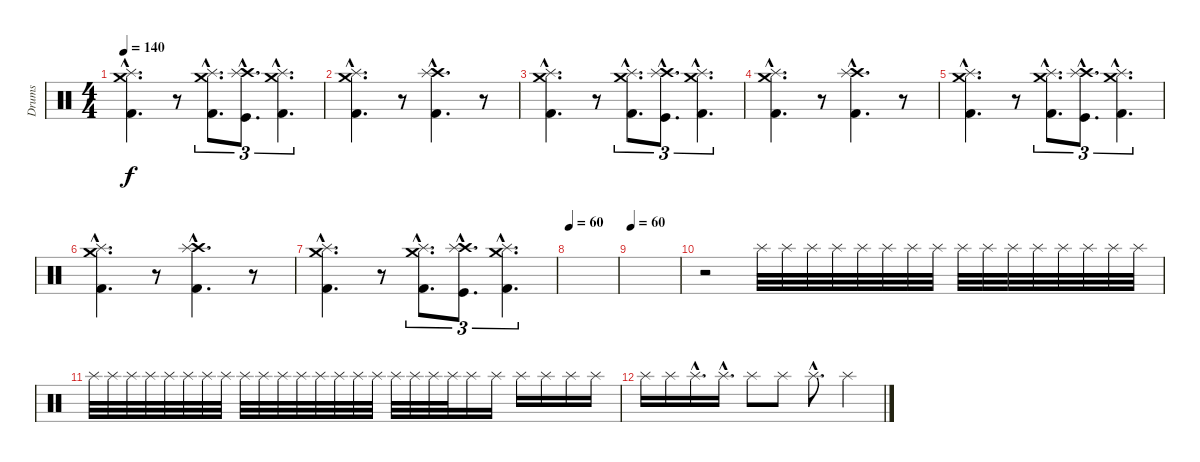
\track ("Drums" "Drums") {instrument percussion}
\staff {score}
\articulation defaults
\ts (4 4)
\tempo 140
\clef neutral
\ks c
("Crash medium (hit)"{hac} "Splash (hit)"{hac} "Kick (hit) 2"{hac}).4{d dy f} r.8 ("Crash medium (hit)"{hac} "Splash (hit)"{hac} "Kick (hit) 2"{hac}).8{d tu (3 2)} ("Crash high (hit)"{hac} "Splash (hit)"{hac} "Kick (hit)"{hac}).8{d tu (3 2)} ("Crash medium (hit)"{hac} "Splash (hit)"{hac} "Kick (hit) 2"{hac}).4{d tu (3 2)} |
("Crash medium (hit)"{hac} "Splash (hit)"{hac} "Kick (hit) 2"{hac}).4{d} r.8 ("Crash high (hit)"{hac} "Splash (hit)"{hac} "Kick (hit) 2"{hac}).4{d} r.8 |
("Crash medium (hit)"{hac} "Splash (hit)"{hac} "Kick (hit) 2"{hac}).4{d} r.8 ("Crash medium (hit)"{hac} "Splash (hit)"{hac} "Kick (hit) 2"{hac}).8{d tu (3 2)} ("Crash high (hit)"{hac} "Splash (hit)"{hac} "Kick (hit)"{hac}).8{d tu (3 2)} ("Crash medium (hit)"{hac} "Splash (hit)"{hac} "Kick (hit) 2"{hac}).4{d tu (3 2)} |
("Crash medium (hit)"{hac} "Splash (hit)"{hac} "Kick (hit) 2"{hac}).4{d} r.8 ("Crash high (hit)"{hac} "Splash (hit)"{hac} "Kick (hit) 2"{hac}).4{d} r.8 |
("Crash medium (hit)"{hac} "Splash (hit)"{hac} "Kick (hit) 2"{hac}).4{d} r.8 ("Crash medium (hit)"{hac} "Splash (hit)"{hac} "Kick (hit) 2"{hac}).8{d tu (3 2)} ("Crash high (hit)"{hac} "Splash (hit)"{hac} "Kick (hit)"{hac}).8{d tu (3 2)} ("Crash medium (hit)"{hac} "Splash (hit)"{hac} "Kick (hit) 2"{hac}).4{d tu (3 2)} |
("Crash medium (hit)"{hac} "Splash (hit)"{hac} "Kick (hit) 2"{hac}).4{d} r.8 ("Crash high (hit)"{hac} "Splash (hit)"{hac} "Kick (hit) 2"{hac}).4{d} r.8 |
("Crash medium (hit)"{hac} "Splash (hit)"{hac} "Kick (hit) 2"{hac}).4{d} r.8 ("Crash medium (hit)"{hac} "Splash (hit)"{hac} "Kick (hit) 2"{hac}).8{d tu (3 2)} ("Crash high (hit)"{hac} "Splash (hit)"{hac} "Kick (hit)"{hac}).8{d tu (3 2)} ("Crash medium (hit)"{hac} "Splash (hit)"{hac} "Kick (hit) 2"{hac}).4{d tu (3 2)} |
\tempo 60
|
\tempo 60
|
r.2 "Splash (hit)".32 "Splash (hit)".32 "Splash (hit)".32 "Splash (hit)".32 "Splash (hit)".32 "Splash (hit)".32 "Splash (hit)".32 "Splash (hit)".32 "Splash (hit)".32 "Splash (hit)".32 "Splash (hit)".32 "Splash (hit)".32 "Splash (hit)".32 "Splash (hit)".32 "Splash (hit)".32 "Splash (hit)".32 |
"Splash (hit)".32 "Splash (hit)".32 "Splash (hit)".32 "Splash (hit)".32 "Splash (hit)".32 "Splash (hit)".32 "Splash (hit)".32 "Splash (hit)".32 "Splash (hit)".32 "Splash (hit)".32 "Splash (hit)".32 "Splash (hit)".32 "Splash (hit)".32 "Splash (hit)".32 "Splash (hit)".32 "Splash (hit)".32 "Splash (hit)".32 "Splash (hit)".32 "Splash (hit)".32 "Splash (hit)".32 "Splash (hit)".16 "Splash (hit)".16 "Splash (hit)".16 "Splash (hit)".16 "Splash (hit)".16 "Splash (hit)".16 |
"Splash (hit)".16 "Splash (hit)".16 "Splash (hit)"{hac}.16{d} "Splash (hit)"{hac}.16{d} "Splash (hit)".8 "Splash (hit)".8 "Splash (hit)"{hac}.8{d} "Splash (hit)".4
